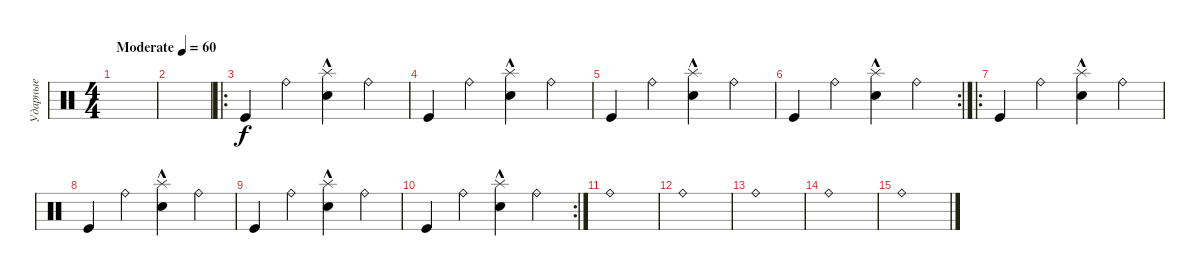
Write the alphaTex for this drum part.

\track ("Ударные" "Ударные") {instrument percussion}
\staff {score}
\articulation defaults
\ts (4 4)
\tempo (60 "Moderate")
\clef neutral
\ks c
|
|
\ro "Kick (hit)".4 "Ride (bell)".4
("Splash (hit)" "Electric Snare (hit)"{hac}).4 "Ride (bell)".4 |
"Kick (hit)".4 "Ride (bell)".4 ("Splash (hit)" "Electric Snare (hit)"{hac}).4 "Ride (bell)".4 |
"Kick (hit)".4 "Ride (bell)".4 ("Splash (hit)" "Electric Snare (hit)"{hac}).4 "Ride (bell)".4 |
\rc 2 "Kick (hit)".4 "Ride (bell)".4
("Splash (hit)" "Electric Snare (hit)"{hac}).4 "Ride (bell)".4 |
\ro "Kick (hit)".4 "Ride (bell)".4
("Splash (hit)" "Electric Snare (hit)"{hac}).4 "Ride (bell)".4 |
"Kick (hit)".4 "Ride (bell)".4 ("Splash (hit)" "Electric Snare (hit)"{hac}).4 "Ride (bell)".4 |
"Kick (hit)".4 "Ride (bell)".4 ("Splash (hit)" "Electric Snare (hit)"{hac}).4 "Ride (bell)".4 |
\rc 2 "Kick (hit)".4 "Ride (bell)".4
("Splash (hit)" "Electric Snare (hit)"{hac}).4 "Ride (bell)".4 |
"Ride (bell)".1 |
"Ride (bell)".1 |
"Ride (bell)".1 |
"Ride (bell)".1 |
"Ride (bell)".1
